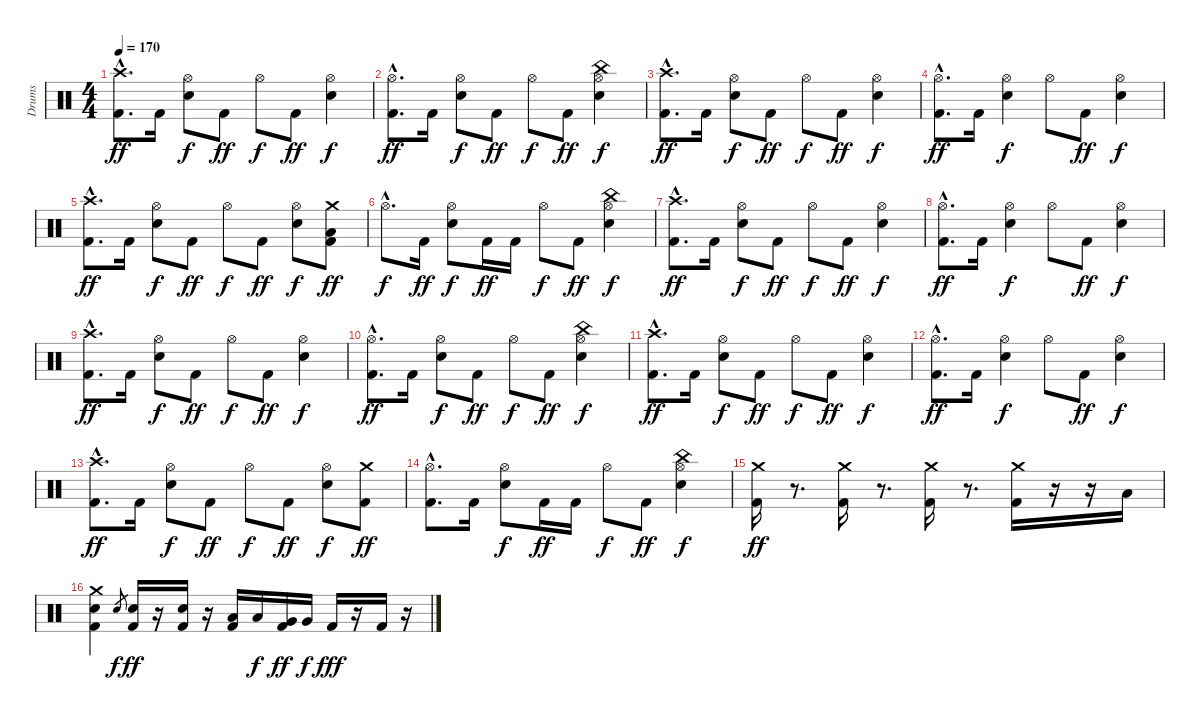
\track ("Drums" "Drums") {instrument percussion}
\staff {score}
\articulation defaults
\ts (4 4)
\tempo 170
\clef neutral
\ks c
("Crash high (hit)"{hac} "Kick (hit) 2"{hac}).8{d dy ff} "Kick (hit) 2".16 ("Hi-Hat (open)" "Snare (hit) 2").8{dy f} "Kick (hit) 2".8{dy ff} "Hi-Hat (open)".8{dy f} "Kick (hit) 2".8{dy ff} ("Hi-Hat (open)" "Snare (hit) 2").4{dy f} |
("Hi-Hat (open)"{hac} "Kick (hit) 2"{hac}).8{d dy ff} "Kick (hit) 2".16 ("Hi-Hat (open)" "Snare (hit) 2").8{dy f} "Kick (hit) 2".8{dy ff} "Hi-Hat (open)".8{dy f} "Kick (hit) 2".8{dy ff} ("China (hit)" "Hi-Hat (open)" "Snare (hit) 2").4{dy f} |
("Crash high (hit)"{hac} "Kick (hit) 2"{hac}).8{d dy ff} "Kick (hit) 2".16 ("Hi-Hat (open)" "Snare (hit) 2").8{dy f} "Kick (hit) 2".8{dy ff} "Hi-Hat (open)".8{dy f} "Kick (hit) 2".8{dy ff} ("Hi-Hat (open)" "Snare (hit) 2").4{dy f} |
("Hi-Hat (open)"{hac} "Kick (hit) 2"{hac}).8{d dy ff} "Kick (hit) 2".16 ("Hi-Hat (open)" "Snare (hit) 2").4{dy f} "Hi-Hat (open)".8 "Kick (hit) 2".8{dy ff} ("Hi-Hat (open)" "Snare (hit) 2").4{dy f} |
("Crash high (hit)"{hac} "Kick (hit) 2"{hac}).8{d dy ff} "Kick (hit) 2".16 ("Hi-Hat (open)" "Snare (hit) 2").8{dy f} "Kick (hit) 2".8{dy ff} "Hi-Hat (open)".8{dy f} "Kick (hit) 2".8{dy ff} ("Hi-Hat (open)" "Snare (hit) 2").8{dy f} ("Crash medium (hit)" "Low Floor Tom (hit)" "Kick (hit) 2").8{dy ff} |
"Hi-Hat (open)"{hac}.8{d dy f} "Kick (hit) 2".16{dy ff} ("Hi-Hat (open)" "Snare (hit) 2").8{dy f} "Kick (hit) 2".16{dy ff} "Kick (hit) 2".16 "Hi-Hat (open)".8{dy f} "Kick (hit) 2".8{dy ff} ("China (hit)" "Hi-Hat (open)" "Snare (hit) 2").4{dy f} |
("Crash high (hit)"{hac} "Kick (hit) 2"{hac}).8{d dy ff} "Kick (hit) 2".16 ("Hi-Hat (open)" "Snare (hit) 2").8{dy f} "Kick (hit) 2".8{dy ff} "Hi-Hat (open)".8{dy f} "Kick (hit) 2".8{dy ff} ("Hi-Hat (open)" "Snare (hit) 2").4{dy f} |
("Hi-Hat (open)"{hac} "Kick (hit) 2"{hac}).8{d dy ff} "Kick (hit) 2".16 ("Hi-Hat (open)" "Snare (hit) 2").4{dy f} "Hi-Hat (open)".8 "Kick (hit) 2".8{dy ff} ("Hi-Hat (open)" "Snare (hit) 2").4{dy f} |
("Crash high (hit)"{hac} "Kick (hit) 2"{hac}).8{d dy ff} "Kick (hit) 2".16 ("Hi-Hat (open)" "Snare (hit) 2").8{dy f} "Kick (hit) 2".8{dy ff} "Hi-Hat (open)".8{dy f} "Kick (hit) 2".8{dy ff} ("Hi-Hat (open)" "Snare (hit) 2").4{dy f} |
("Hi-Hat (open)"{hac} "Kick (hit) 2"{hac}).8{d dy ff} "Kick (hit) 2".16 ("Hi-Hat (open)" "Snare (hit) 2").8{dy f} "Kick (hit) 2".8{dy ff} "Hi-Hat (open)".8{dy f} "Kick (hit) 2".8{dy ff} ("China (hit)" "Hi-Hat (open)" "Snare (hit) 2").4{dy f} |
("Crash high (hit)"{hac} "Kick (hit) 2"{hac}).8{d dy ff} "Kick (hit) 2".16 ("Hi-Hat (open)" "Snare (hit) 2").8{dy f} "Kick (hit) 2".8{dy ff} "Hi-Hat (open)".8{dy f} "Kick (hit) 2".8{dy ff} ("Hi-Hat (open)" "Snare (hit) 2").4{dy f} |
("Hi-Hat (open)"{hac} "Kick (hit) 2"{hac}).8{d dy ff} "Kick (hit) 2".16 ("Hi-Hat (open)" "Snare (hit) 2").4{dy f} "Hi-Hat (open)".8 "Kick (hit) 2".8{dy ff} ("Hi-Hat (open)" "Snare (hit) 2").4{dy f} |
("Crash high (hit)"{hac} "Kick (hit) 2"{hac}).8{d dy ff} "Kick (hit) 2".16 ("Hi-Hat (open)" "Snare (hit) 2").8{dy f} "Kick (hit) 2".8{dy ff} "Hi-Hat (open)".8{dy f} "Kick (hit) 2".8{dy ff} ("Hi-Hat (open)" "Snare (hit) 2").8{dy f} ("Crash medium (hit)" "Kick (hit) 2").8{dy ff} |
("Hi-Hat (open)"{hac} "Kick (hit) 2"{hac}).8{d} "Kick (hit) 2".16 ("Hi-Hat (open)" "Snare (hit) 2").8{dy f} "Kick (hit) 2".16{dy ff} "Kick (hit) 2".16 "Hi-Hat (open)".8{dy f} "Kick (hit) 2".8{dy ff} ("China (hit)" "Hi-Hat (open)" "Snare (hit) 2").4{dy f} |
("Crash medium (hit)" "Kick (hit) 2").16{dy ff} r.8{d} ("Crash medium (hit)" "Kick (hit) 2").16 r.8{d} ("Crash medium (hit)" "Kick (hit) 2").16 r.8{d} ("Crash medium (hit)" "Kick (hit) 2").16 r.16 r.16 "Low Floor Tom (hit)".16 |
("Crash medium (hit)" "Snare (hit) 2" "Kick (hit) 2").4 "Snare (hit) 2".8{gr dy f} ("Snare (hit) 2" "Kick (hit) 2").16{dy ff} r.16 ("Snare (hit) 2" "Kick (hit) 2").16 r.16 ("Low Tom (hit)" "Kick (hit) 2").16 "Low Tom (hit)".16{dy f} ("Very Low Tom (hit)" "Kick (hit) 2").16{dy ff} "Very Low Tom (hit)".16{dy f} "Kick (hit) 2".16{dy fff} r.16 "Kick (hit) 2".16 r.16
